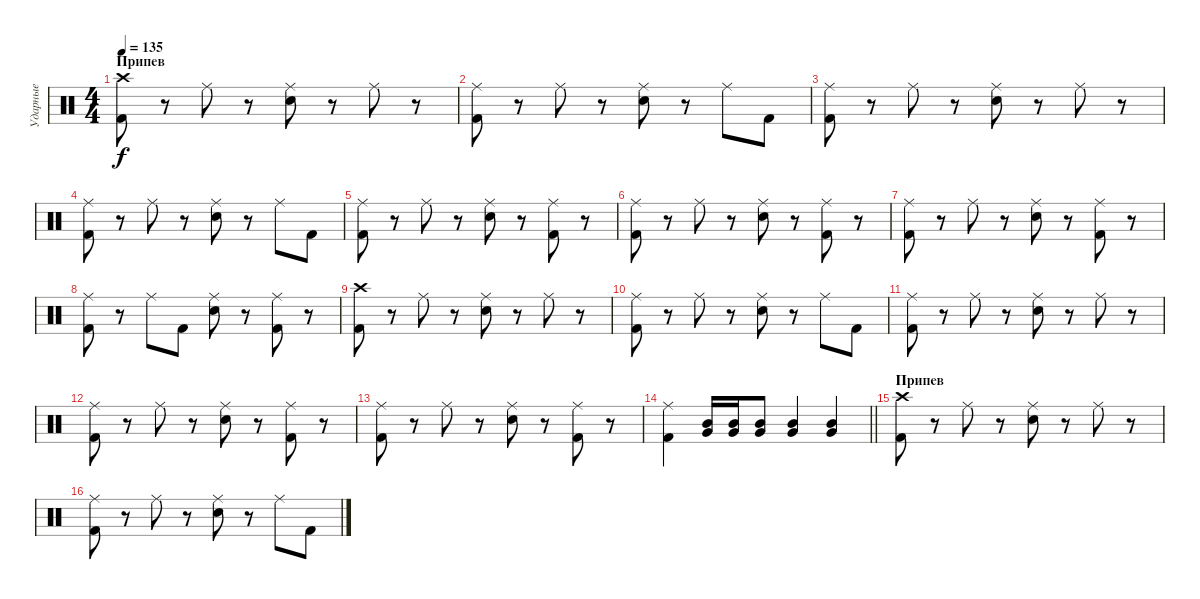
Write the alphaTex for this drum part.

\track ("Ударные" "Ударные") {instrument percussion}
\staff {score}
\articulation defaults
\ts (4 4)
\section ("" "Припев")
\tempo 135
\clef neutral
\ks c
("Kick (hit) 2" "Crash high (hit)").8{dy f} r.8 "Ride (middle)".8 r.8 ("Ride (middle)" "Electric Snare (hit)").8 r.8 "Ride (middle)".8 r.8 |
("Ride (middle)" "Kick (hit) 2").8 r.8 "Ride (middle)".8 r.8 ("Ride (middle)" "Electric Snare (hit)").8 r.8 "Ride (middle)".8 "Kick (hit) 2".8 |
("Ride (middle)" "Kick (hit) 2").8 r.8 "Ride (middle)".8 r.8 ("Ride (middle)" "Electric Snare (hit)").8 r.8 "Ride (middle)".8 r.8 |
("Ride (middle)" "Kick (hit) 2").8 r.8 "Ride (middle)".8 r.8 ("Ride (middle)" "Electric Snare (hit)").8 r.8 "Ride (middle)".8 "Kick (hit) 2".8 |
("Ride (middle)" "Kick (hit) 2").8 r.8 "Ride (middle)".8 r.8 ("Ride (middle)" "Electric Snare (hit)").8 r.8 ("Ride (middle)" "Kick (hit) 2").8 r.8 |
("Ride (middle)" "Kick (hit) 2").8 r.8 "Ride (middle)".8 r.8 ("Ride (middle)" "Electric Snare (hit)").8 r.8 ("Ride (middle)" "Kick (hit) 2").8 r.8 |
("Ride (middle)" "Kick (hit) 2").8 r.8 "Ride (middle)".8 r.8 ("Ride (middle)" "Electric Snare (hit)").8 r.8 ("Ride (middle)" "Kick (hit) 2").8 r.8 |
("Ride (middle)" "Kick (hit) 2").8 r.8 "Ride (middle)".8 "Kick (hit) 2".8 ("Ride (middle)" "Electric Snare (hit)").8 r.8 ("Ride (middle)" "Kick (hit) 2").8 r.8 |
("Kick (hit) 2" "Crash high (hit)").8 r.8 "Ride (middle)".8 r.8 ("Ride (middle)" "Electric Snare (hit)").8 r.8 "Ride (middle)".8 r.8 |
("Ride (middle)" "Kick (hit) 2").8 r.8 "Ride (middle)".8 r.8 ("Ride (middle)" "Electric Snare (hit)").8 r.8 "Ride (middle)".8 "Kick (hit) 2".8 |
("Ride (middle)" "Kick (hit) 2").8 r.8 "Ride (middle)".8 r.8 ("Ride (middle)" "Electric Snare (hit)").8 r.8 "Ride (middle)".8 r.8 |
("Ride (middle)" "Kick (hit) 2").8 r.8 "Ride (middle)".8 r.8 ("Ride (middle)" "Electric Snare (hit)").8 r.8 ("Ride (middle)" "Kick (hit) 2").8 r.8 |
("Ride (middle)" "Kick (hit) 2").8 r.8 "Ride (middle)".8 r.8 ("Ride (middle)" "Electric Snare (hit)").8 r.8 ("Ride (middle)" "Kick (hit) 2").8 r.8 |
\barLineRight lightlight
("Ride (middle)" "Kick (hit) 2").4 ("Mid Tom (hit)" "Very Low Tom (hit)").16 ("Very Low Tom (hit)" "Mid Tom (hit)").16 ("Mid Tom (hit)" "Very Low Tom (hit)").8 ("Mid Tom (hit)" "Very Low Tom (hit)").4 ("Mid Tom (hit)" "Very Low Tom (hit)").4 |
\section ("" "Припев")
("Kick (hit) 2" "Crash high (hit)").8 r.8 "Ride (middle)".8 r.8 ("Ride (middle)" "Electric Snare (hit)").8 r.8 "Ride (middle)".8 r.8 |
("Ride (middle)" "Kick (hit) 2").8 r.8 "Ride (middle)".8 r.8 ("Ride (middle)" "Electric Snare (hit)").8 r.8 "Ride (middle)".8 "Kick (hit) 2".8
